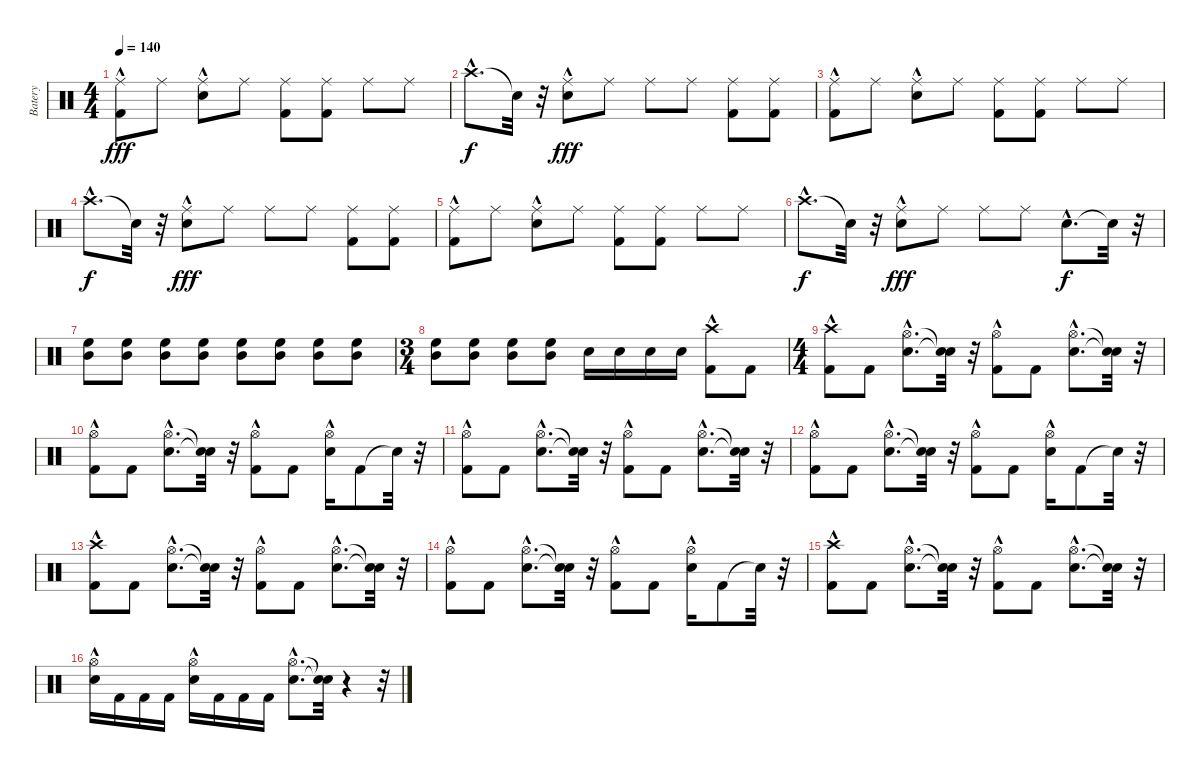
\track ("Batery" "Batery") {instrument percussion}
\staff {score}
\articulation defaults
\ts (4 4)
\tempo 140
\clef neutral
\ks c
("Kick (hit) 2"{hac} "Ride (middle)").8{dy fff} "Ride (middle)".8 ("Snare (hit) 2"{hac} "Ride (middle)").8 "Ride (middle)".8 ("Kick (hit) 2" "Ride (middle)").8 ("Kick (hit) 2" "Ride (middle)").8 "Ride (middle)".8 "Ride (middle)".8 |
"Crash high (hit)"{hac}.8{d dy f} "Snare (hit)"{t}.32 r.32 ("Ride (middle)" "Snare (hit) 2"{hac}).8{dy fff} "Ride (middle)".8 "Ride (middle)".8 "Ride (middle)".8 ("Kick (hit) 2" "Ride (middle)").8 ("Kick (hit) 2" "Ride (middle)").8 |
("Kick (hit) 2"{hac} "Ride (middle)").8 "Ride (middle)".8 ("Snare (hit) 2"{hac} "Ride (middle)").8 "Ride (middle)".8 ("Kick (hit) 2" "Ride (middle)").8 ("Kick (hit) 2" "Ride (middle)").8 "Ride (middle)".8 "Ride (middle)".8 |
"Crash high (hit)"{hac}.8{d dy f} "Snare (hit)"{t}.32 r.32 ("Ride (middle)" "Snare (hit) 2"{hac}).8{dy fff} "Ride (middle)".8 "Ride (middle)".8 "Ride (middle)".8 ("Kick (hit) 2" "Ride (middle)").8 ("Kick (hit) 2" "Ride (middle)").8 |
("Kick (hit) 2"{hac} "Ride (middle)").8 "Ride (middle)".8 ("Snare (hit) 2"{hac} "Ride (middle)").8 "Ride (middle)".8 ("Kick (hit) 2" "Ride (middle)").8 ("Kick (hit) 2" "Ride (middle)").8 "Ride (middle)".8 "Ride (middle)".8 |
"Crash high (hit)"{hac}.8{d dy f} "Snare (hit)"{t}.32 r.32 ("Ride (middle)" "Snare (hit) 2"{hac}).8{dy fff} "Ride (middle)".8 "Ride (middle)".8 "Ride (middle)".8 "Snare (hit) 2"{hac}.8{d dy f} "Snare (hit)"{t}.32 r.32 |
("High Floor Tom (hit)" "Mid Tom (hit)").8 ("High Floor Tom (hit)" "Mid Tom (hit)").8 ("High Floor Tom (hit)" "Mid Tom (hit)").8 ("High Floor Tom (hit)" "Mid Tom (hit)").8 ("High Floor Tom (hit)" "Mid Tom (hit)").8 ("High Floor Tom (hit)" "Mid Tom (hit)").8 ("High Floor Tom (hit)" "Mid Tom (hit)").8 ("High Floor Tom (hit)" "Mid Tom (hit)").8 |
\ts (3 4)
("High Floor Tom (hit)" "Mid Tom (hit)").8 ("High Floor Tom (hit)" "Mid Tom (hit)").8 ("High Floor Tom (hit)" "Mid Tom (hit)").8 ("High Floor Tom (hit)" "Mid Tom (hit)").8 "Snare (hit) 2".16 "Snare (hit) 2".16 "Snare (hit) 2".16 "Snare (hit) 2".16 ("Crash high (hit)"{hac} "Kick (hit) 2").8 "Kick (hit) 2".8 |
\ts (4 4)
("Kick (hit) 2" "Crash high (hit)"{hac}).8 "Kick (hit) 2".8 ("Snare (hit) 2"{hac} "Hi-Hat (open)"{hac}).8{d} ("Snare (hit)"{t} "Snare (hit)"{t}).32 r.32 ("Kick (hit) 2" "Hi-Hat (open)"{hac}).8 "Kick (hit) 2".8 ("Hi-Hat (open)"{hac} "Snare (hit) 2"{hac}).8{d} ("Snare (hit)"{t} "Snare (hit)"{t}).32 r.32 |
("Kick (hit) 2" "Hi-Hat (open)"{hac}).8 "Kick (hit) 2".8 ("Snare (hit) 2"{hac} "Hi-Hat (open)"{hac}).8{d} ("Snare (hit)"{t} "Snare (hit)"{t}).32 r.32 ("Kick (hit) 2" "Hi-Hat (open)"{hac}).8 "Kick (hit) 2".8 ("Hi-Hat (open)"{hac} "Snare (hit) 2"{hac}).16 "Kick (hit) 2".8 "Snare (hit)"{t}.32 r.32 |
("Kick (hit) 2" "Hi-Hat (open)"{hac}).8 "Kick (hit) 2".8 ("Snare (hit) 2"{hac} "Hi-Hat (open)"{hac}).8{d} ("Snare (hit)"{t} "Snare (hit)"{t}).32 r.32 ("Kick (hit) 2" "Hi-Hat (open)"{hac}).8 "Kick (hit) 2".8 ("Hi-Hat (open)"{hac} "Snare (hit) 2"{hac}).8{d} ("Snare (hit)"{t} "Snare (hit)"{t}).32 r.32 |
("Kick (hit) 2" "Hi-Hat (open)"{hac}).8 "Kick (hit) 2".8 ("Snare (hit) 2"{hac} "Hi-Hat (open)"{hac}).8{d} ("Snare (hit)"{t} "Snare (hit)"{t}).32 r.32 ("Kick (hit) 2" "Hi-Hat (open)"{hac}).8 "Kick (hit) 2".8 ("Hi-Hat (open)"{hac} "Snare (hit) 2"{hac}).16 "Kick (hit) 2".8 "Snare (hit)"{t}.32 r.32 |
("Kick (hit) 2" "Crash high (hit)"{hac}).8 "Kick (hit) 2".8 ("Snare (hit) 2"{hac} "Hi-Hat (open)"{hac}).8{d} ("Snare (hit)"{t} "Snare (hit)"{t}).32 r.32 ("Kick (hit) 2" "Hi-Hat (open)"{hac}).8 "Kick (hit) 2".8 ("Hi-Hat (open)"{hac} "Snare (hit) 2"{hac}).8{d} ("Snare (hit)"{t} "Snare (hit)"{t}).32 r.32 |
("Kick (hit) 2" "Hi-Hat (open)"{hac}).8 "Kick (hit) 2".8 ("Snare (hit) 2"{hac} "Hi-Hat (open)"{hac}).8{d} ("Snare (hit)"{t} "Snare (hit)"{t}).32 r.32 ("Kick (hit) 2" "Hi-Hat (open)"{hac}).8 "Kick (hit) 2".8 ("Hi-Hat (open)"{hac} "Snare (hit) 2"{hac}).16 "Kick (hit) 2".8 "Snare (hit)"{t}.32 r.32 |
("Kick (hit) 2" "Crash high (hit)"{hac}).8 "Kick (hit) 2".8 ("Snare (hit) 2"{hac} "Hi-Hat (open)"{hac}).8{d} ("Snare (hit)"{t} "Snare (hit)"{t}).32 r.32 ("Kick (hit) 2" "Hi-Hat (open)"{hac}).8 "Kick (hit) 2".8 ("Hi-Hat (open)"{hac} "Snare (hit) 2"{hac}).8{d} ("Snare (hit)"{t} "Snare (hit)"{t}).32 r.32 |
("Snare (hit) 2"{hac} "Hi-Hat (open)"{hac}).16 "Kick (hit) 2".16 "Kick (hit) 2".16 "Kick (hit) 2".16 ("Snare (hit) 2"{hac} "Hi-Hat (open)"{hac}).16 "Kick (hit) 2".16 "Kick (hit) 2".16 "Kick (hit) 2".16 ("Snare (hit) 2"{hac} "Hi-Hat (open)"{hac}).8{d} ("Snare (hit)"{t} "Snare (hit)"{t}).32 r.4 r.32
